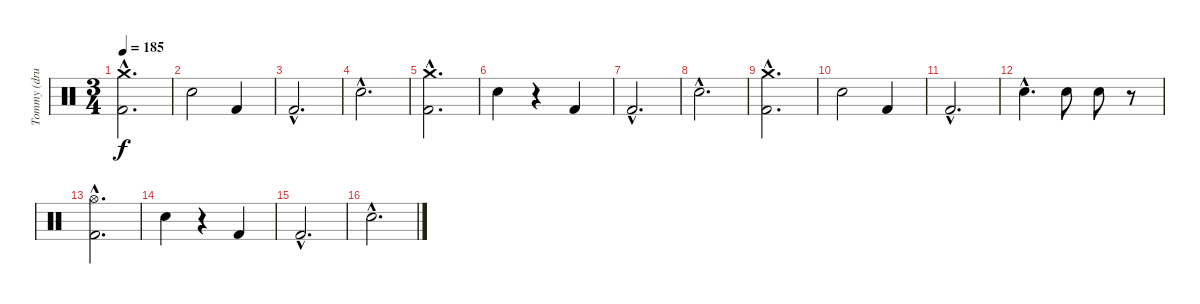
\track ("Tommy (drums)" "Tommy (dru") {instrument percussion}
\staff {score}
\articulation defaults
\ts (3 4)
\tempo 185
\clef neutral
\ks c
("Crash medium (hit)"{hac} "Kick (hit) 2"{hac}).2{d dy f} |
"Electric Snare (hit)".2 "Kick (hit) 2".4 |
"Kick (hit) 2"{hac}.2{d} |
"Electric Snare (hit)"{hac}.2{d} |
("Crash medium (hit)"{hac} "Kick (hit) 2"{hac}).2{d} |
"Electric Snare (hit)".4 r.4 "Kick (hit) 2".4 |
"Kick (hit) 2"{hac}.2{d} |
"Electric Snare (hit)"{hac}.2{d} |
("Crash medium (hit)"{hac} "Kick (hit) 2"{hac}).2{d} |
"Electric Snare (hit)".2 "Kick (hit) 2".4 |
"Kick (hit) 2"{hac}.2{d} |
"Electric Snare (hit)"{hac}.4{d} "Electric Snare (hit)".8 "Electric Snare (hit)".8 r.8 |
("Hi-Hat (open)"{hac} "Kick (hit) 2"{hac}).2{d} |
"Electric Snare (hit)".4 r.4 "Kick (hit) 2".4 |
"Kick (hit) 2"{hac}.2{d} |
"Electric Snare (hit)"{hac}.2{d}
